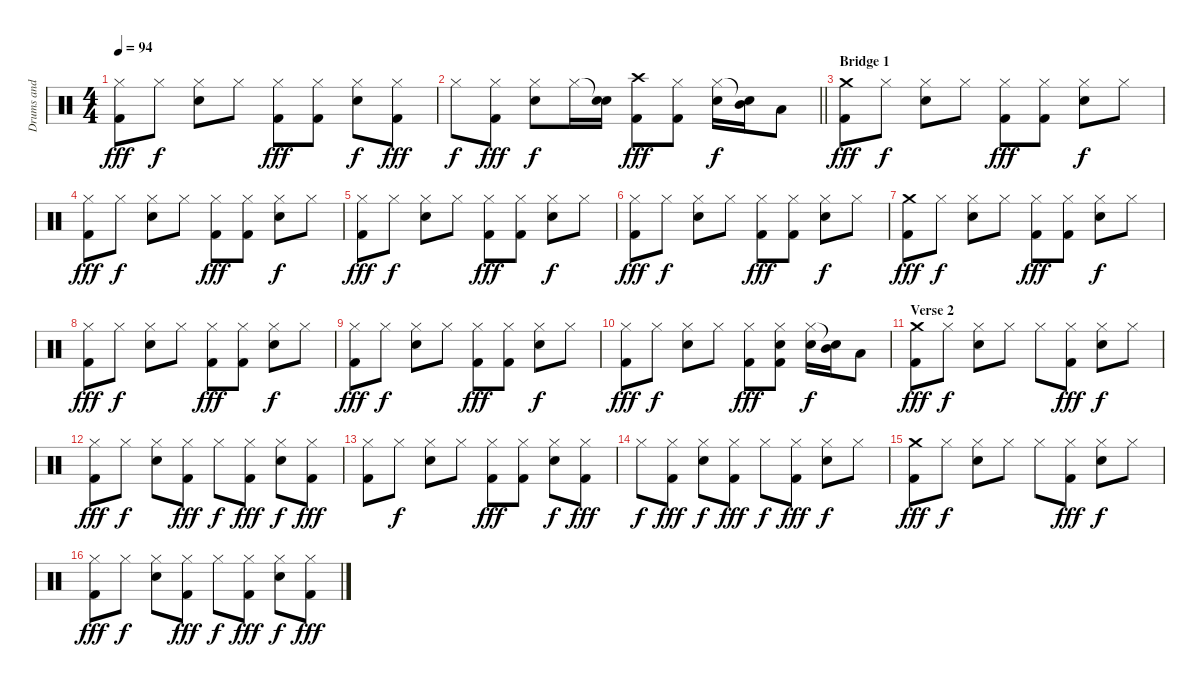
\track ("Drums and Percussion" "Drums and ") {instrument percussion}
\staff {score}
\articulation defaults
\ts (4 4)
\tempo 94
\clef neutral
\ks c
("Hi-Hat (closed)" "Kick (hit) 2").8{dy fff} "Hi-Hat (closed)".8{dy f} ("Hi-Hat (closed)" "Snare (hit) 2").8 "Hi-Hat (closed)".8 ("Hi-Hat (closed)" "Kick (hit) 2").8{dy fff} ("Hi-Hat (closed)" "Kick (hit) 2").8 ("Hi-Hat (closed)" "Snare (hit) 2").8{dy f} ("Hi-Hat (closed)" "Kick (hit) 2").8{dy fff} |
\barLineRight lightlight "Hi-Hat (closed)".8{dy f}
("Hi-Hat (closed)" "Kick (hit) 2").8{dy fff} ("Hi-Hat (closed)" "Snare (hit) 2").8{dy f} "Hi-Hat (closed)".16 ("Snare (hit)"{t} "Snare (hit) 2").16 ("Crash high (hit)" "Kick (hit) 2").8{dy fff} ("Hi-Hat (closed)" "Kick (hit) 2").8 ("Hi-Hat (closed)" "Snare (hit) 2").16{dy f} ("Snare (hit)"{t} "Mid Tom (hit)").16 "Low Tom (hit)".8 |
\section ("" "Bridge 1")
("Crash medium (hit)" "Kick (hit) 2").8{dy fff} "Hi-Hat (closed)".8{dy f} ("Hi-Hat (closed)" "Snare (hit) 2").8 "Hi-Hat (closed)".8 ("Hi-Hat (closed)" "Kick (hit) 2").8{dy fff} ("Hi-Hat (closed)" "Kick (hit) 2").8 ("Hi-Hat (closed)" "Snare (hit) 2").8{dy f} "Hi-Hat (closed)".8 |
("Hi-Hat (closed)" "Kick (hit) 2").8{dy fff} "Hi-Hat (closed)".8{dy f} ("Hi-Hat (closed)" "Snare (hit) 2").8 "Hi-Hat (closed)".8 ("Hi-Hat (closed)" "Kick (hit) 2").8{dy fff} ("Hi-Hat (closed)" "Kick (hit) 2").8 ("Hi-Hat (closed)" "Snare (hit) 2").8{dy f} "Hi-Hat (closed)".8 |
("Hi-Hat (closed)" "Kick (hit) 2").8{dy fff} "Hi-Hat (closed)".8{dy f} ("Hi-Hat (closed)" "Snare (hit) 2").8 "Hi-Hat (closed)".8 ("Hi-Hat (closed)" "Kick (hit) 2").8{dy fff} ("Hi-Hat (closed)" "Kick (hit) 2").8 ("Hi-Hat (closed)" "Snare (hit) 2").8{dy f} "Hi-Hat (closed)".8 |
("Hi-Hat (closed)" "Kick (hit) 2").8{dy fff} "Hi-Hat (closed)".8{dy f} ("Hi-Hat (closed)" "Snare (hit) 2").8 "Hi-Hat (closed)".8 ("Hi-Hat (closed)" "Kick (hit) 2").8{dy fff} ("Hi-Hat (closed)" "Kick (hit) 2").8 ("Hi-Hat (closed)" "Snare (hit) 2").8{dy f} "Hi-Hat (closed)".8 |
("Crash medium (hit)" "Kick (hit) 2").8{dy fff} "Hi-Hat (closed)".8{dy f} ("Hi-Hat (closed)" "Snare (hit) 2").8 "Hi-Hat (closed)".8 ("Hi-Hat (closed)" "Kick (hit) 2").8{dy fff} ("Hi-Hat (closed)" "Kick (hit) 2").8 ("Hi-Hat (closed)" "Snare (hit) 2").8{dy f} "Hi-Hat (closed)".8 |
("Hi-Hat (closed)" "Kick (hit) 2").8{dy fff} "Hi-Hat (closed)".8{dy f} ("Hi-Hat (closed)" "Snare (hit) 2").8 "Hi-Hat (closed)".8 ("Hi-Hat (closed)" "Kick (hit) 2").8{dy fff} ("Hi-Hat (closed)" "Kick (hit) 2").8 ("Hi-Hat (closed)" "Snare (hit) 2").8{dy f} "Hi-Hat (closed)".8 |
("Hi-Hat (closed)" "Kick (hit) 2").8{dy fff} "Hi-Hat (closed)".8{dy f} ("Hi-Hat (closed)" "Snare (hit) 2").8 "Hi-Hat (closed)".8 ("Hi-Hat (closed)" "Kick (hit) 2").8{dy fff} ("Hi-Hat (closed)" "Kick (hit) 2").8 ("Hi-Hat (closed)" "Snare (hit) 2").8{dy f} "Hi-Hat (closed)".8 |
("Hi-Hat (closed)" "Kick (hit) 2").8{dy fff} "Hi-Hat (closed)".8{dy f} ("Hi-Hat (closed)" "Snare (hit) 2").8 "Hi-Hat (closed)".8 ("Hi-Hat (closed)" "Kick (hit) 2").8{dy fff} ("Hi-Hat (closed)" "Snare (hit) 2" "Kick (hit) 2").8 ("Hi-Hat (closed)" "Snare (hit) 2").16{dy f} ("Snare (hit)"{t} "Mid Tom (hit)").16 "Low Tom (hit)".8 |
\section ("" "Verse 2")
("Crash medium (hit)" "Kick (hit) 2").8{dy fff} "Hi-Hat (closed)".8{dy f} ("Hi-Hat (closed)" "Snare (hit) 2").8 "Hi-Hat (closed)".8 "Hi-Hat (closed)".8 ("Hi-Hat (closed)" "Kick (hit) 2").8{dy fff} ("Hi-Hat (closed)" "Snare (hit) 2").8{dy f} "Hi-Hat (closed)".8 |
("Hi-Hat (closed)" "Kick (hit) 2").8{dy fff} "Hi-Hat (closed)".8{dy f} ("Hi-Hat (closed)" "Snare (hit) 2").8 ("Hi-Hat (closed)" "Kick (hit) 2").8{dy fff} "Hi-Hat (closed)".8{dy f} ("Hi-Hat (closed)" "Kick (hit) 2").8{dy fff} ("Hi-Hat (closed)" "Snare (hit) 2").8{dy f} ("Hi-Hat (closed)" "Kick (hit) 2").8{dy fff} |
("Hi-Hat (closed)" "Kick (hit) 2").8 "Hi-Hat (closed)".8{dy f} ("Hi-Hat (closed)" "Snare (hit) 2").8 "Hi-Hat (closed)".8 ("Hi-Hat (closed)" "Kick (hit) 2").8{dy fff} ("Hi-Hat (closed)" "Kick (hit) 2").8 ("Hi-Hat (closed)" "Snare (hit) 2").8{dy f} ("Hi-Hat (closed)" "Kick (hit) 2").8{dy fff} |
"Hi-Hat (closed)".8{dy f} ("Hi-Hat (closed)" "Kick (hit) 2").8{dy fff} ("Hi-Hat (closed)" "Snare (hit) 2").8{dy f} ("Hi-Hat (closed)" "Kick (hit) 2").8{dy fff} "Hi-Hat (closed)".8{dy f} ("Hi-Hat (closed)" "Kick (hit) 2").8{dy fff} ("Hi-Hat (closed)" "Snare (hit) 2").8{dy f} "Hi-Hat (closed)".8 |
("Crash medium (hit)" "Kick (hit) 2").8{dy fff} "Hi-Hat (closed)".8{dy f} ("Hi-Hat (closed)" "Snare (hit) 2").8 "Hi-Hat (closed)".8 "Hi-Hat (closed)".8 ("Hi-Hat (closed)" "Kick (hit) 2").8{dy fff} ("Hi-Hat (closed)" "Snare (hit) 2").8{dy f} "Hi-Hat (closed)".8 |
("Hi-Hat (closed)" "Kick (hit) 2").8{dy fff} "Hi-Hat (closed)".8{dy f} ("Hi-Hat (closed)" "Snare (hit) 2").8 ("Hi-Hat (closed)" "Kick (hit) 2").8{dy fff} "Hi-Hat (closed)".8{dy f} ("Hi-Hat (closed)" "Kick (hit) 2").8{dy fff} ("Hi-Hat (closed)" "Snare (hit) 2").8{dy f} ("Hi-Hat (closed)" "Kick (hit) 2").8{dy fff}
